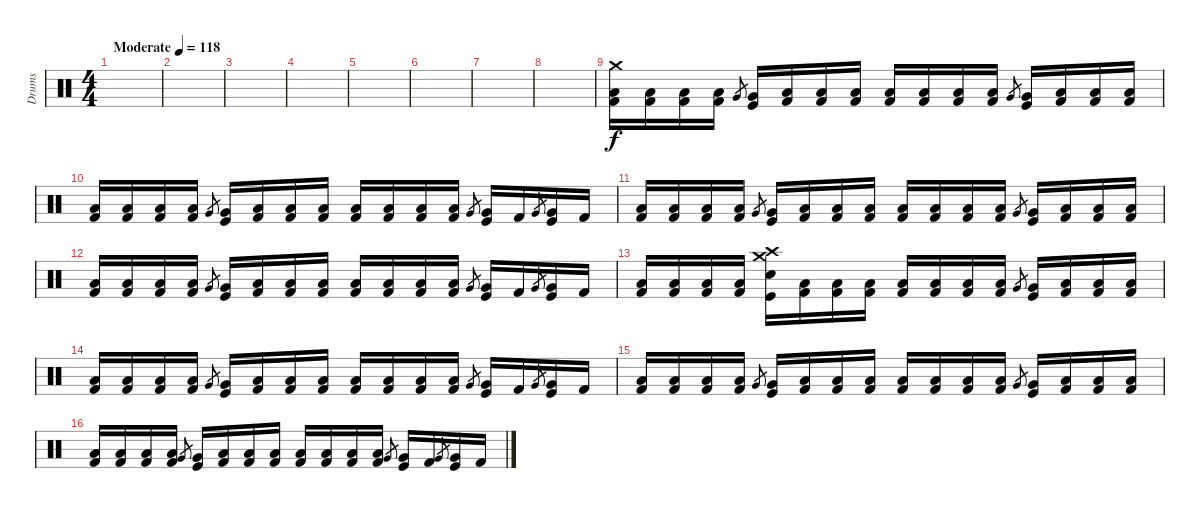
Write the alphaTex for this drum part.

\track ("Drums" "Drums") {instrument percussion}
\staff {score}
\articulation defaults
\ts (4 4)
\tempo (118 "Moderate")
\clef neutral
\ks c
|
|
|
|
|
|
|
|
("Kick (hit) 2" "Low Floor Tom (hit)" "Crash medium (hit)").16 ("Kick (hit) 2" "Low Floor Tom (hit)").16 ("Kick (hit) 2" "Low Floor Tom (hit)").16 ("Kick (hit) 2" "Low Floor Tom (hit)").16 "Very Low Tom (hit)".8{gr} ("Kick (hit)" "Very Low Tom (hit)").16 ("Kick (hit) 2" "Low Floor Tom (hit)").16 ("Kick (hit) 2" "Low Floor Tom (hit)").16 ("Kick (hit) 2" "Low Floor Tom (hit)").16 ("Kick (hit) 2" "Low Floor Tom (hit)").16 ("Kick (hit) 2" "Low Floor Tom (hit)").16 ("Kick (hit) 2" "Low Floor Tom (hit)").16 ("Kick (hit) 2" "Low Floor Tom (hit)").16 "Very Low Tom (hit)".8{gr} ("Kick (hit)" "Very Low Tom (hit)").16 ("Kick (hit) 2" "Low Floor Tom (hit)").16 ("Kick (hit) 2" "Low Floor Tom (hit)").16 ("Kick (hit) 2" "Low Floor Tom (hit)").16 |
("Kick (hit) 2" "Low Floor Tom (hit)").16 ("Kick (hit) 2" "Low Floor Tom (hit)").16 ("Kick (hit) 2" "Low Floor Tom (hit)").16 ("Kick (hit) 2" "Low Floor Tom (hit)").16 "Very Low Tom (hit)".8{gr} ("Kick (hit)" "Very Low Tom (hit)").16 ("Kick (hit) 2" "Low Floor Tom (hit)").16 ("Kick (hit) 2" "Low Floor Tom (hit)").16 ("Kick (hit) 2" "Low Floor Tom (hit)").16 ("Kick (hit) 2" "Low Floor Tom (hit)").16 ("Kick (hit) 2" "Low Floor Tom (hit)").16 ("Kick (hit) 2" "Low Floor Tom (hit)").16 ("Kick (hit) 2" "Low Floor Tom (hit)").16 "Very Low Tom (hit)".8{gr} ("Kick (hit)" "Very Low Tom (hit)").16 "Kick (hit) 2".16 "Very Low Tom (hit)".8{gr} ("Kick (hit)" "Very Low Tom (hit)").16 "Kick (hit) 2".16 |
("Kick (hit) 2" "Low Floor Tom (hit)").16 ("Kick (hit) 2" "Low Floor Tom (hit)").16 ("Kick (hit) 2" "Low Floor Tom (hit)").16 ("Kick (hit) 2" "Low Floor Tom (hit)").16 "Very Low Tom (hit)".8{gr} ("Kick (hit)" "Very Low Tom (hit)").16 ("Kick (hit) 2" "Low Floor Tom (hit)").16 ("Kick (hit) 2" "Low Floor Tom (hit)").16 ("Kick (hit) 2" "Low Floor Tom (hit)").16 ("Kick (hit) 2" "Low Floor Tom (hit)").16 ("Kick (hit) 2" "Low Floor Tom (hit)").16 ("Kick (hit) 2" "Low Floor Tom (hit)").16 ("Kick (hit) 2" "Low Floor Tom (hit)").16 "Very Low Tom (hit)".8{gr} ("Kick (hit)" "Very Low Tom (hit)").16 ("Kick (hit) 2" "Low Floor Tom (hit)").16 ("Kick (hit) 2" "Low Floor Tom (hit)").16 ("Kick (hit) 2" "Low Floor Tom (hit)").16 |
("Kick (hit) 2" "Low Floor Tom (hit)").16 ("Kick (hit) 2" "Low Floor Tom (hit)").16 ("Kick (hit) 2" "Low Floor Tom (hit)").16 ("Kick (hit) 2" "Low Floor Tom (hit)").16 "Very Low Tom (hit)".8{gr} ("Kick (hit)" "Very Low Tom (hit)").16 ("Kick (hit) 2" "Low Floor Tom (hit)").16 ("Kick (hit) 2" "Low Floor Tom (hit)").16 ("Kick (hit) 2" "Low Floor Tom (hit)").16 ("Kick (hit) 2" "Low Floor Tom (hit)").16 ("Kick (hit) 2" "Low Floor Tom (hit)").16 ("Kick (hit) 2" "Low Floor Tom (hit)").16 ("Kick (hit) 2" "Low Floor Tom (hit)").16 "Very Low Tom (hit)".8{gr} ("Kick (hit)" "Very Low Tom (hit)").16 "Kick (hit) 2".16 "Very Low Tom (hit)".8{gr} ("Kick (hit)" "Very Low Tom (hit)").16 "Kick (hit) 2".16 |
("Kick (hit) 2" "Low Floor Tom (hit)").16 ("Kick (hit) 2" "Low Floor Tom (hit)").16 ("Kick (hit) 2" "Low Floor Tom (hit)").16 ("Kick (hit) 2" "Low Floor Tom (hit)").16 ("Kick (hit)" "Snare (hit) 2" "Crash medium (hit)" "Crash high (hit)").16 ("Kick (hit) 2" "Low Floor Tom (hit)").16 ("Kick (hit) 2" "Low Floor Tom (hit)").16 ("Kick (hit) 2" "Low Floor Tom (hit)").16 ("Kick (hit) 2" "Low Floor Tom (hit)").16 ("Kick (hit) 2" "Low Floor Tom (hit)").16 ("Kick (hit) 2" "Low Floor Tom (hit)").16 ("Kick (hit) 2" "Low Floor Tom (hit)").16 "Very Low Tom (hit)".8{gr} ("Kick (hit)" "Very Low Tom (hit)").16 ("Kick (hit) 2" "Low Floor Tom (hit)").16 ("Kick (hit) 2" "Low Floor Tom (hit)").16 ("Kick (hit) 2" "Low Floor Tom (hit)").16 |
("Kick (hit) 2" "Low Floor Tom (hit)").16 ("Kick (hit) 2" "Low Floor Tom (hit)").16 ("Kick (hit) 2" "Low Floor Tom (hit)").16 ("Kick (hit) 2" "Low Floor Tom (hit)").16 "Very Low Tom (hit)".8{gr} ("Kick (hit)" "Very Low Tom (hit)").16 ("Kick (hit) 2" "Low Floor Tom (hit)").16 ("Kick (hit) 2" "Low Floor Tom (hit)").16 ("Kick (hit) 2" "Low Floor Tom (hit)").16 ("Kick (hit) 2" "Low Floor Tom (hit)").16 ("Kick (hit) 2" "Low Floor Tom (hit)").16 ("Kick (hit) 2" "Low Floor Tom (hit)").16 ("Kick (hit) 2" "Low Floor Tom (hit)").16 "Very Low Tom (hit)".8{gr} ("Kick (hit)" "Very Low Tom (hit)").16 "Kick (hit) 2".16 "Very Low Tom (hit)".8{gr} ("Kick (hit)" "Very Low Tom (hit)").16 "Kick (hit) 2".16 |
("Kick (hit) 2" "Low Floor Tom (hit)").16 ("Kick (hit) 2" "Low Floor Tom (hit)").16 ("Kick (hit) 2" "Low Floor Tom (hit)").16 ("Kick (hit) 2" "Low Floor Tom (hit)").16 "Very Low Tom (hit)".8{gr} ("Kick (hit)" "Very Low Tom (hit)").16 ("Kick (hit) 2" "Low Floor Tom (hit)").16 ("Kick (hit) 2" "Low Floor Tom (hit)").16 ("Kick (hit) 2" "Low Floor Tom (hit)").16 ("Kick (hit) 2" "Low Floor Tom (hit)").16 ("Kick (hit) 2" "Low Floor Tom (hit)").16 ("Kick (hit) 2" "Low Floor Tom (hit)").16 ("Kick (hit) 2" "Low Floor Tom (hit)").16 "Very Low Tom (hit)".8{gr} ("Kick (hit)" "Very Low Tom (hit)").16 ("Kick (hit) 2" "Low Floor Tom (hit)").16 ("Kick (hit) 2" "Low Floor Tom (hit)").16 ("Kick (hit) 2" "Low Floor Tom (hit)").16 |
("Kick (hit) 2" "Low Floor Tom (hit)").16 ("Kick (hit) 2" "Low Floor Tom (hit)").16 ("Kick (hit) 2" "Low Floor Tom (hit)").16 ("Kick (hit) 2" "Low Floor Tom (hit)").16 "Very Low Tom (hit)".8{gr} ("Kick (hit)" "Very Low Tom (hit)").16 ("Kick (hit) 2" "Low Floor Tom (hit)").16 ("Kick (hit) 2" "Low Floor Tom (hit)").16 ("Kick (hit) 2" "Low Floor Tom (hit)").16 ("Kick (hit) 2" "Low Floor Tom (hit)").16 ("Kick (hit) 2" "Low Floor Tom (hit)").16 ("Kick (hit) 2" "Low Floor Tom (hit)").16 ("Kick (hit) 2" "Low Floor Tom (hit)").16 "Very Low Tom (hit)".8{gr} ("Kick (hit)" "Very Low Tom (hit)").16 "Kick (hit) 2".16 "Very Low Tom (hit)".8{gr} ("Kick (hit)" "Very Low Tom (hit)").16 "Kick (hit) 2".16
